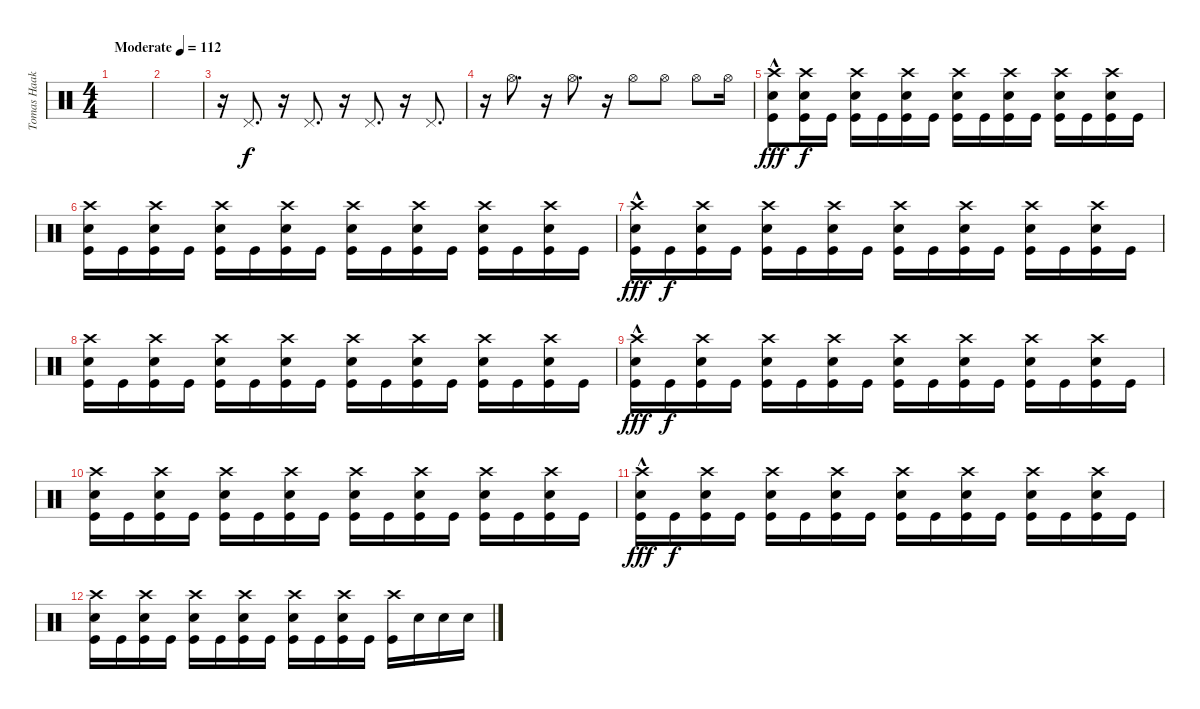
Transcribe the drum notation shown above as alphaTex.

\track ("Tomas Haake" "Tomas Haak") {instrument percussion}
\staff {score}
\articulation defaults
\ts (4 4)
\tempo (112 "Moderate")
\clef neutral
\ks c
|
|
r.16 "Pedal Hi-Hat (hit)".8{d} r.16 "Pedal Hi-Hat (hit)".8{d} r.16 "Pedal Hi-Hat (hit)".8{d} r.16 "Pedal Hi-Hat (hit)".8{d} |
r.16 "Hi-Hat (open)".8{d} r.16 "Hi-Hat (open)".8{d} r.16 "Hi-Hat (open)".8 "Hi-Hat (open)".8 "Hi-Hat (open)".8 "Hi-Hat (open)".16 |
("Crash high (hit)" "Electric Snare (hit)"{hac} "Kick (hit)").8{dy fff} ("Crash high (hit)" "Electric Snare (hit)" "Kick (hit)").16{dy f} "Kick (hit)".16 ("Crash high (hit)" "Electric Snare (hit)" "Kick (hit)").16 "Kick (hit)".16 ("Crash high (hit)" "Electric Snare (hit)" "Kick (hit)").16 "Kick (hit)".16 ("Crash high (hit)" "Electric Snare (hit)" "Kick (hit)").16 "Kick (hit)".16 ("Crash high (hit)" "Electric Snare (hit)" "Kick (hit)").16 "Kick (hit)".16 ("Crash high (hit)" "Electric Snare (hit)" "Kick (hit)").16 "Kick (hit)".16 ("Crash high (hit)" "Electric Snare (hit)" "Kick (hit)").16 "Kick (hit)".16 |
("Crash high (hit)" "Electric Snare (hit)" "Kick (hit)").16 "Kick (hit)".16 ("Crash high (hit)" "Electric Snare (hit)" "Kick (hit)").16 "Kick (hit)".16 ("Crash high (hit)" "Electric Snare (hit)" "Kick (hit)").16 "Kick (hit)".16 ("Crash high (hit)" "Electric Snare (hit)" "Kick (hit)").16 "Kick (hit)".16 ("Crash high (hit)" "Electric Snare (hit)" "Kick (hit)").16 "Kick (hit)".16 ("Crash high (hit)" "Electric Snare (hit)" "Kick (hit)").16 "Kick (hit)".16 ("Crash high (hit)" "Electric Snare (hit)" "Kick (hit)").16 "Kick (hit)".16 ("Crash high (hit)" "Electric Snare (hit)" "Kick (hit)").16 "Kick (hit)".16 |
("Crash high (hit)"{hac} "Electric Snare (hit)" "Kick (hit)").16{dy fff} "Kick (hit)".16{dy f} ("Crash high (hit)" "Electric Snare (hit)" "Kick (hit)").16 "Kick (hit)".16 ("Crash high (hit)" "Electric Snare (hit)" "Kick (hit)").16 "Kick (hit)".16 ("Crash high (hit)" "Electric Snare (hit)" "Kick (hit)").16 "Kick (hit)".16 ("Crash high (hit)" "Electric Snare (hit)" "Kick (hit)").16 "Kick (hit)".16 ("Crash high (hit)" "Electric Snare (hit)" "Kick (hit)").16 "Kick (hit)".16 ("Crash high (hit)" "Electric Snare (hit)" "Kick (hit)").16 "Kick (hit)".16 ("Crash high (hit)" "Electric Snare (hit)" "Kick (hit)").16 "Kick (hit)".16 |
("Crash high (hit)" "Electric Snare (hit)" "Kick (hit)").16 "Kick (hit)".16 ("Crash high (hit)" "Electric Snare (hit)" "Kick (hit)").16 "Kick (hit)".16 ("Crash high (hit)" "Electric Snare (hit)" "Kick (hit)").16 "Kick (hit)".16 ("Crash high (hit)" "Electric Snare (hit)" "Kick (hit)").16 "Kick (hit)".16 ("Crash high (hit)" "Electric Snare (hit)" "Kick (hit)").16 "Kick (hit)".16 ("Crash high (hit)" "Electric Snare (hit)" "Kick (hit)").16 "Kick (hit)".16 ("Crash high (hit)" "Electric Snare (hit)" "Kick (hit)").16 "Kick (hit)".16 ("Crash high (hit)" "Electric Snare (hit)" "Kick (hit)").16 "Kick (hit)".16 |
("Crash high (hit)"{hac} "Electric Snare (hit)" "Kick (hit)").16{dy fff} "Kick (hit)".16{dy f} ("Crash high (hit)" "Electric Snare (hit)" "Kick (hit)").16 "Kick (hit)".16 ("Crash high (hit)" "Electric Snare (hit)" "Kick (hit)").16 "Kick (hit)".16 ("Crash high (hit)" "Electric Snare (hit)" "Kick (hit)").16 "Kick (hit)".16 ("Crash high (hit)" "Electric Snare (hit)" "Kick (hit)").16 "Kick (hit)".16 ("Crash high (hit)" "Electric Snare (hit)" "Kick (hit)").16 "Kick (hit)".16 ("Crash high (hit)" "Electric Snare (hit)" "Kick (hit)").16 "Kick (hit)".16 ("Crash high (hit)" "Electric Snare (hit)" "Kick (hit)").16 "Kick (hit)".16 |
("Crash high (hit)" "Electric Snare (hit)" "Kick (hit)").16 "Kick (hit)".16 ("Crash high (hit)" "Electric Snare (hit)" "Kick (hit)").16 "Kick (hit)".16 ("Crash high (hit)" "Electric Snare (hit)" "Kick (hit)").16 "Kick (hit)".16 ("Crash high (hit)" "Electric Snare (hit)" "Kick (hit)").16 "Kick (hit)".16 ("Crash high (hit)" "Electric Snare (hit)" "Kick (hit)").16 "Kick (hit)".16 ("Crash high (hit)" "Electric Snare (hit)" "Kick (hit)").16 "Kick (hit)".16 ("Crash high (hit)" "Electric Snare (hit)" "Kick (hit)").16 "Kick (hit)".16 ("Crash high (hit)" "Electric Snare (hit)" "Kick (hit)").16 "Kick (hit)".16 |
("Crash high (hit)"{hac} "Electric Snare (hit)" "Kick (hit)").16{dy fff} "Kick (hit)".16{dy f} ("Crash high (hit)" "Electric Snare (hit)" "Kick (hit)").16 "Kick (hit)".16 ("Crash high (hit)" "Electric Snare (hit)" "Kick (hit)").16 "Kick (hit)".16 ("Crash high (hit)" "Electric Snare (hit)" "Kick (hit)").16 "Kick (hit)".16 ("Crash high (hit)" "Electric Snare (hit)" "Kick (hit)").16 "Kick (hit)".16 ("Crash high (hit)" "Electric Snare (hit)" "Kick (hit)").16 "Kick (hit)".16 ("Crash high (hit)" "Electric Snare (hit)" "Kick (hit)").16 "Kick (hit)".16 ("Crash high (hit)" "Electric Snare (hit)" "Kick (hit)").16 "Kick (hit)".16 |
("Crash high (hit)" "Electric Snare (hit)" "Kick (hit)").16 "Kick (hit)".16 ("Crash high (hit)" "Electric Snare (hit)" "Kick (hit)").16 "Kick (hit)".16 ("Crash high (hit)" "Electric Snare (hit)" "Kick (hit)").16 "Kick (hit)".16 ("Crash high (hit)" "Electric Snare (hit)" "Kick (hit)").16 "Kick (hit)".16 ("Crash high (hit)" "Electric Snare (hit)" "Kick (hit)").16 "Kick (hit)".16 ("Crash high (hit)" "Electric Snare (hit)" "Kick (hit)").16 "Kick (hit)".16 ("Crash high (hit)" "Kick (hit)").16 "Electric Snare (hit)".16 "Electric Snare (hit)".16 "Electric Snare (hit)".16
